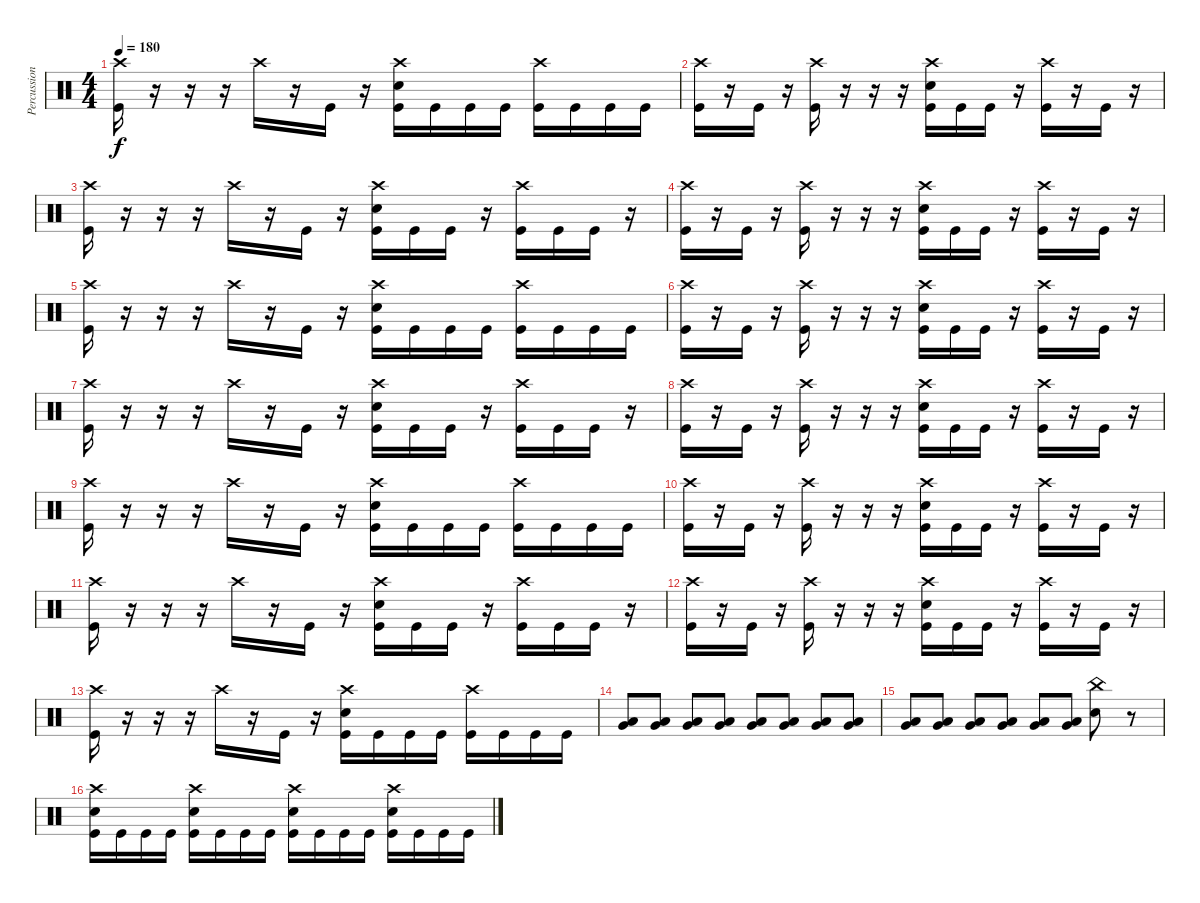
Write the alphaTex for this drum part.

\track ("Percussion" "Percussion") {instrument percussion}
\staff {score}
\articulation defaults
\ts (4 4)
\tempo 180
\clef neutral
\ks c
("Crash high (hit)" "Kick (hit)").16{dy f} r.16 r.16 r.16 "Crash high (hit)".16 r.16 "Kick (hit)".16 r.16 ("Crash high (hit)" "Electric Snare (hit)" "Kick (hit)").16 "Kick (hit)".16 "Kick (hit)".16 "Kick (hit)".16 ("Crash high (hit)" "Kick (hit)").16 "Kick (hit)".16 "Kick (hit)".16 "Kick (hit)".16 |
("Crash high (hit)" "Kick (hit)").16 r.16 "Kick (hit)".16 r.16 ("Crash high (hit)" "Kick (hit)").16 r.16 r.16 r.16 ("Crash high (hit)" "Electric Snare (hit)" "Kick (hit)").16 "Kick (hit)".16 "Kick (hit)".16 r.16 ("Crash high (hit)" "Kick (hit)").16 r.16 "Kick (hit)".16 r.16 |
("Crash high (hit)" "Kick (hit)").16 r.16 r.16 r.16 "Crash high (hit)".16 r.16 "Kick (hit)".16 r.16 ("Crash high (hit)" "Electric Snare (hit)" "Kick (hit)").16 "Kick (hit)".16 "Kick (hit)".16 r.16 ("Crash high (hit)" "Kick (hit)").16 "Kick (hit)".16 "Kick (hit)".16 r.16 |
("Crash high (hit)" "Kick (hit)").16 r.16 "Kick (hit)".16 r.16 ("Crash high (hit)" "Kick (hit)").16 r.16 r.16 r.16 ("Crash high (hit)" "Electric Snare (hit)" "Kick (hit)").16 "Kick (hit)".16 "Kick (hit)".16 r.16 ("Crash high (hit)" "Kick (hit)").16 r.16 "Kick (hit)".16 r.16 |
("Crash high (hit)" "Kick (hit)").16 r.16 r.16 r.16 "Crash high (hit)".16 r.16 "Kick (hit)".16 r.16 ("Crash high (hit)" "Electric Snare (hit)" "Kick (hit)").16 "Kick (hit)".16 "Kick (hit)".16 "Kick (hit)".16 ("Crash high (hit)" "Kick (hit)").16 "Kick (hit)".16 "Kick (hit)".16 "Kick (hit)".16 |
("Crash high (hit)" "Kick (hit)").16 r.16 "Kick (hit)".16 r.16 ("Crash high (hit)" "Kick (hit)").16 r.16 r.16 r.16 ("Crash high (hit)" "Electric Snare (hit)" "Kick (hit)").16 "Kick (hit)".16 "Kick (hit)".16 r.16 ("Crash high (hit)" "Kick (hit)").16 r.16 "Kick (hit)".16 r.16 |
("Crash high (hit)" "Kick (hit)").16 r.16 r.16 r.16 "Crash high (hit)".16 r.16 "Kick (hit)".16 r.16 ("Crash high (hit)" "Electric Snare (hit)" "Kick (hit)").16 "Kick (hit)".16 "Kick (hit)".16 r.16 ("Crash high (hit)" "Kick (hit)").16 "Kick (hit)".16 "Kick (hit)".16 r.16 |
("Crash high (hit)" "Kick (hit)").16 r.16 "Kick (hit)".16 r.16 ("Crash high (hit)" "Kick (hit)").16 r.16 r.16 r.16 ("Crash high (hit)" "Electric Snare (hit)" "Kick (hit)").16 "Kick (hit)".16 "Kick (hit)".16 r.16 ("Crash high (hit)" "Kick (hit)").16 r.16 "Kick (hit)".16 r.16 |
("Crash high (hit)" "Kick (hit)").16 r.16 r.16 r.16 "Crash high (hit)".16 r.16 "Kick (hit)".16 r.16 ("Crash high (hit)" "Electric Snare (hit)" "Kick (hit)").16 "Kick (hit)".16 "Kick (hit)".16 "Kick (hit)".16 ("Crash high (hit)" "Kick (hit)").16 "Kick (hit)".16 "Kick (hit)".16 "Kick (hit)".16 |
("Crash high (hit)" "Kick (hit)").16 r.16 "Kick (hit)".16 r.16 ("Crash high (hit)" "Kick (hit)").16 r.16 r.16 r.16 ("Crash high (hit)" "Electric Snare (hit)" "Kick (hit)").16 "Kick (hit)".16 "Kick (hit)".16 r.16 ("Crash high (hit)" "Kick (hit)").16 r.16 "Kick (hit)".16 r.16 |
("Crash high (hit)" "Kick (hit)").16 r.16 r.16 r.16 "Crash high (hit)".16 r.16 "Kick (hit)".16 r.16 ("Crash high (hit)" "Electric Snare (hit)" "Kick (hit)").16 "Kick (hit)".16 "Kick (hit)".16 r.16 ("Crash high (hit)" "Kick (hit)").16 "Kick (hit)".16 "Kick (hit)".16 r.16 |
("Crash high (hit)" "Kick (hit)").16 r.16 "Kick (hit)".16 r.16 ("Crash high (hit)" "Kick (hit)").16 r.16 r.16 r.16 ("Crash high (hit)" "Electric Snare (hit)" "Kick (hit)").16 "Kick (hit)".16 "Kick (hit)".16 r.16 ("Crash high (hit)" "Kick (hit)").16 r.16 "Kick (hit)".16 r.16 |
("Crash high (hit)" "Kick (hit)").16 r.16 r.16 r.16 "Crash high (hit)".16 r.16 "Kick (hit)".16 r.16 ("Crash high (hit)" "Electric Snare (hit)" "Kick (hit)").16 "Kick (hit)".16 "Kick (hit)".16 "Kick (hit)".16 ("Crash high (hit)" "Kick (hit)").16 "Kick (hit)".16 "Kick (hit)".16 "Kick (hit)".16 |
("Very Low Tom (hit)" "Low Floor Tom (hit)").8 ("Very Low Tom (hit)" "Low Floor Tom (hit)").8 ("Very Low Tom (hit)" "Low Floor Tom (hit)").8 ("Very Low Tom (hit)" "Low Floor Tom (hit)").8 ("Very Low Tom (hit)" "Low Floor Tom (hit)").8 ("Very Low Tom (hit)" "Low Floor Tom (hit)").8 ("Very Low Tom (hit)" "Low Floor Tom (hit)").8 ("Very Low Tom (hit)" "Low Floor Tom (hit)").8 |
("Very Low Tom (hit)" "Low Floor Tom (hit)").8 ("Very Low Tom (hit)" "Low Floor Tom (hit)").8 ("Very Low Tom (hit)" "Low Floor Tom (hit)").8 ("Very Low Tom (hit)" "Low Floor Tom (hit)").8 ("Very Low Tom (hit)" "Low Floor Tom (hit)").8 ("Very Low Tom (hit)" "Low Floor Tom (hit)").8 ("Electric Snare (hit)" "China (hit)").8 r.8 |
("Crash high (hit)" "Electric Snare (hit)" "Kick (hit)").16 "Kick (hit)".16 "Kick (hit)".16 "Kick (hit)".16 ("Crash high (hit)" "Electric Snare (hit)" "Kick (hit)").16 "Kick (hit)".16 "Kick (hit)".16 "Kick (hit)".16 ("Crash high (hit)" "Electric Snare (hit)" "Kick (hit)").16 "Kick (hit)".16 "Kick (hit)".16 "Kick (hit)".16 ("Crash high (hit)" "Electric Snare (hit)" "Kick (hit)").16 "Kick (hit)".16 "Kick (hit)".16 "Kick (hit)".16
